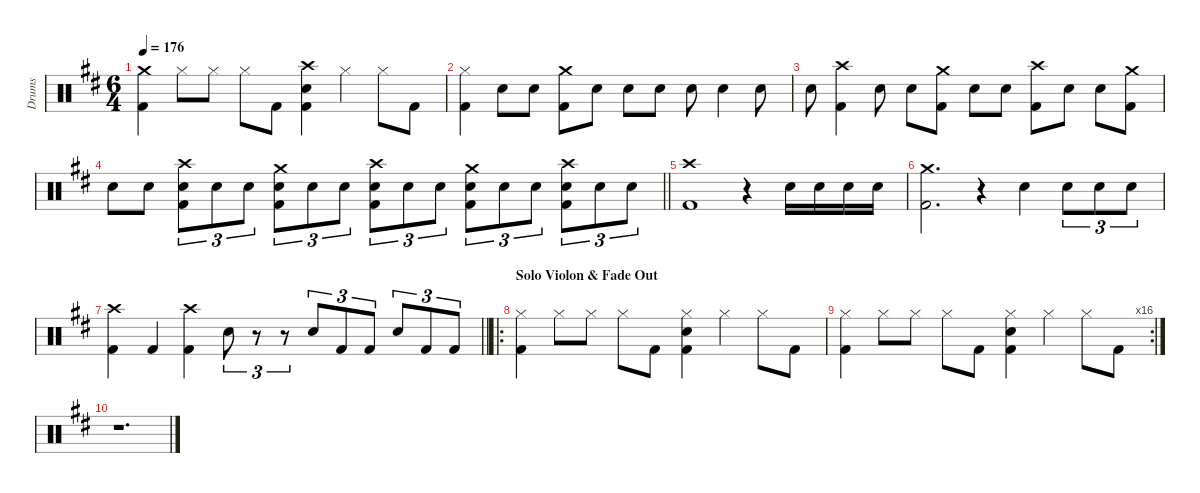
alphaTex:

\hideDynamics
\bracketExtendMode groupsimilarinstruments
\otherSystemsTrackNameOrientation horizontal
\track ("Drumkit" "Drums") {defaultSystemsLayout 4 instrument percussion}
\staff {score}
\articulation defaults
\ts (6 4)
\tempo 176
\clef neutral
\ks bminor
("Crash medium (hit)"{acc forcenatural} "Kick (hit) 2"{acc forcenatural}).4{dy ff beam Down} "Hi-Hat (closed)"{acc forcenatural}.8{dy f beam Down} "Hi-Hat (closed)"{acc forcenatural}.8{beam Down} "Hi-Hat (closed)"{acc forcenatural}.8{beam Down} "Kick (hit) 2"{acc forcenatural}.8{beam Down} ("Crash high (hit)"{acc forcenatural} "Snare (hit) 2"{acc forcenatural} "Kick (hit) 2"{acc forcenatural}).4{beam Down} "Hi-Hat (closed)"{acc forcenatural}.4{beam Down} "Hi-Hat (closed)"{acc forcenatural}.8{beam Down} "Kick (hit) 2"{acc forcenatural}.8{beam Down} |
("Hi-Hat (closed)"{acc forcenatural} "Kick (hit) 2"{acc forcenatural}).4{beam Down} "Snare (hit) 2"{acc forcenatural}.8{beam Down} "Snare (hit) 2"{acc forcenatural}.8{beam Down} ("Crash medium (hit)"{acc forcenatural} "Kick (hit) 2"{acc forcenatural}).8{beam Down} "Snare (hit) 2"{acc forcenatural}.8{beam Down} "Snare (hit) 2"{acc forcenatural}.8{beam Down} "Snare (hit) 2"{acc forcenatural}.8{beam Down} "Snare (hit) 2"{acc forcenatural}.8{beam Down} "Snare (hit) 2"{acc forcenatural}.4{beam Down} "Snare (hit) 2"{acc forcenatural}.8{beam Down} |
"Snare (hit) 2"{acc forcenatural}.8{beam Down} ("Crash high (hit)"{acc forcenatural} "Kick (hit) 2"{acc forcenatural}).4{beam Down} "Snare (hit) 2"{acc forcenatural}.8{beam Down} "Snare (hit) 2"{acc forcenatural}.8{beam Down} ("Crash medium (hit)"{acc forcenatural} "Kick (hit) 2"{acc forcenatural}).8{beam Down} "Snare (hit) 2"{acc forcenatural}.8{beam Down} "Snare (hit) 2"{acc forcenatural}.8{beam Down} ("Crash high (hit)"{acc forcenatural} "Kick (hit) 2"{acc forcenatural}).8{beam Down} "Snare (hit) 2"{acc forcenatural}.8{beam Down} "Snare (hit) 2"{acc forcenatural}.8{beam Down} ("Crash medium (hit)"{acc forcenatural} "Kick (hit) 2"{acc forcenatural}).8{beam Down} |
\barLineRight lightlight "Snare (hit) 2"{acc forcenatural}.8{beam Down} "Snare (hit) 2"{acc forcenatural}.8{beam Down}
("Crash high (hit)"{acc forcenatural} "Snare (hit) 2"{acc forcenatural} "Kick (hit) 2"{acc forcenatural}).8{tu (3 2) beam Down} "Snare (hit) 2"{acc forcenatural}.8{tu (3 2) beam Down} "Snare (hit) 2"{acc forcenatural}.8{tu (3 2) beam Down} ("Crash medium (hit)"{acc forcenatural} "Snare (hit) 2"{acc forcenatural} "Kick (hit) 2"{acc forcenatural}).8{tu (3 2) beam Down} "Snare (hit) 2"{acc forcenatural}.8{tu (3 2) beam Down} "Snare (hit) 2"{acc forcenatural}.8{tu (3 2) beam Down} ("Crash high (hit)"{acc forcenatural} "Snare (hit) 2"{acc forcenatural} "Kick (hit) 2"{acc forcenatural}).8{tu (3 2) beam Down} "Snare (hit) 2"{acc forcenatural}.8{tu (3 2) beam Down} "Snare (hit) 2"{acc forcenatural}.8{tu (3 2) beam Down} ("Crash medium (hit)"{acc forcenatural} "Snare (hit) 2"{acc forcenatural} "Kick (hit) 2"{acc forcenatural}).8{tu (3 2) beam Down} "Snare (hit) 2"{acc forcenatural}.8{tu (3 2) beam Down} "Snare (hit) 2"{acc forcenatural}.8{tu (3 2) beam Down} ("Crash high (hit)"{acc forcenatural} "Snare (hit) 2"{acc forcenatural} "Kick (hit) 2"{acc forcenatural}).8{tu (3 2) beam Down} "Snare (hit) 2"{acc forcenatural}.8{tu (3 2) beam Down} "Snare (hit) 2"{acc forcenatural}.8{tu (3 2) beam Down} |
("Crash high (hit)"{acc forcenatural} "Kick (hit) 2"{acc forcenatural}).1{dy ff beam Down} r.4{beam Down} "Snare (hit) 2"{acc forcenatural}.16{dy mf beam Down} "Snare (hit) 2"{acc forcenatural}.16{dy f beam Down} "Snare (hit) 2"{acc forcenatural}.16{dy ff beam Down} "Snare (hit) 2"{acc forcenatural}.16{dy fff beam Down} |
("Crash medium (hit)"{acc forcenatural} "Kick (hit) 2"{acc forcenatural}).2{d dy ff beam Down} r.4{beam Down} "Snare (hit) 2"{acc forcenatural}.4{dy fff beam Down} "Snare (hit) 2"{acc forcenatural}.8{tu (3 2) dy ff beam Down} "Snare (hit) 2"{acc forcenatural}.8{tu (3 2) beam Down} "Snare (hit) 2"{acc forcenatural}.8{tu (3 2) beam Down} |
\barLineRight lightlight
("Crash high (hit)"{acc forcenatural} "Kick (hit) 2"{acc forcenatural}).4{dy f beam Down} "Kick (hit) 2"{acc forcenatural}.4{beam Up} ("Crash high (hit)"{acc forcenatural} "Kick (hit) 2"{acc forcenatural}).4{beam Down} "Snare (hit) 2"{acc forcenatural}.8{tu (3 2) dy fff beam Down} r.8{tu (3 2) beam Down} r.8{tu (3 2) beam Down} "Snare (hit) 2"{acc forcenatural}.8{tu (3 2) beam Up} "Kick (hit) 2"{acc forcenatural}.8{tu (3 2) dy ff beam Up} "Kick (hit) 2"{acc forcenatural}.8{tu (3 2) beam Up} "Snare (hit) 2"{acc forcenatural}.8{tu (3 2) dy fff beam Up} "Kick (hit) 2"{acc forcenatural}.8{tu (3 2) dy ff beam Up} "Kick (hit) 2"{acc forcenatural}.8{tu (3 2) beam Up} |
\ro
\section ("" "Solo Violon & Fade Out")
("Hi-Hat (closed)"{acc forcenatural} "Kick (hit) 2"{acc forcenatural}).4{dy f beam Down} "Hi-Hat (closed)"{acc forcenatural}.8{beam Down} "Hi-Hat (closed)"{acc forcenatural}.8{beam Down} "Hi-Hat (closed)"{acc forcenatural}.8{beam Down} "Kick (hit) 2"{acc forcenatural}.8{beam Down} ("Hi-Hat (closed)"{acc forcenatural} "Snare (hit) 2"{acc forcenatural} "Kick (hit) 2"{acc forcenatural}).4{beam Down} "Hi-Hat (closed)"{acc forcenatural}.4{beam Down} "Hi-Hat (closed)"{acc forcenatural}.8{beam Down} "Kick (hit) 2"{acc forcenatural}.8{beam Down} |
\rc 16
("Hi-Hat (closed)"{acc forcenatural} "Kick (hit) 2"{acc forcenatural}).4{beam Down} "Hi-Hat (closed)"{acc forcenatural}.8{beam Down} "Hi-Hat (closed)"{acc forcenatural}.8{beam Down} "Hi-Hat (closed)"{acc forcenatural}.8{beam Down} "Kick (hit) 2"{acc forcenatural}.8{beam Down} ("Hi-Hat (closed)"{acc forcenatural} "Snare (hit) 2"{acc forcenatural} "Kick (hit) 2"{acc forcenatural}).4{beam Down} "Hi-Hat (closed)"{acc forcenatural}.4{beam Down} "Hi-Hat (closed)"{acc forcenatural}.8{beam Down} "Kick (hit) 2"{acc forcenatural}.8{beam Down} |
r.1{d beam Down}
